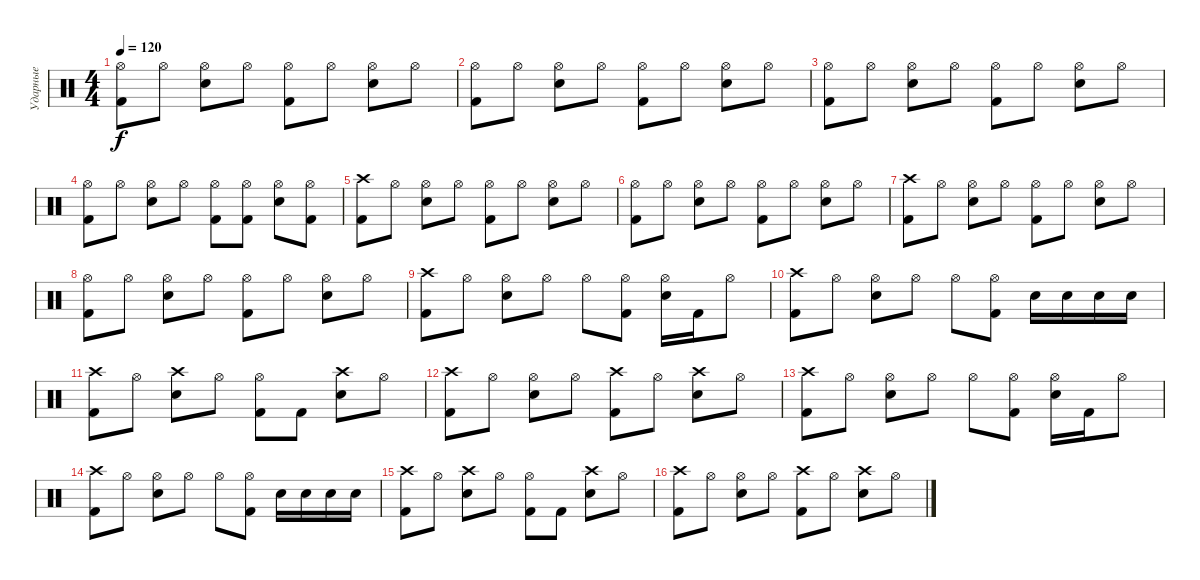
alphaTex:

\track ("Ударные" "Ударные") {instrument percussion}
\staff {score}
\articulation defaults
\ts (4 4)
\tempo 120
\clef neutral
\ks c
("Hi-Hat (open)" "Kick (hit) 2").8{dy f} "Hi-Hat (open)".8 ("Snare (hit) 2" "Hi-Hat (open)").8 "Hi-Hat (open)".8 ("Kick (hit) 2" "Hi-Hat (open)").8 "Hi-Hat (open)".8 ("Snare (hit) 2" "Hi-Hat (open)").8 "Hi-Hat (open)".8 |
("Hi-Hat (open)" "Kick (hit) 2").8 "Hi-Hat (open)".8 ("Snare (hit) 2" "Hi-Hat (open)").8 "Hi-Hat (open)".8 ("Kick (hit) 2" "Hi-Hat (open)").8 "Hi-Hat (open)".8 ("Snare (hit) 2" "Hi-Hat (open)").8 "Hi-Hat (open)".8 |
("Hi-Hat (open)" "Kick (hit) 2").8 "Hi-Hat (open)".8 ("Snare (hit) 2" "Hi-Hat (open)").8 "Hi-Hat (open)".8 ("Kick (hit) 2" "Hi-Hat (open)").8 "Hi-Hat (open)".8 ("Snare (hit) 2" "Hi-Hat (open)").8 "Hi-Hat (open)".8 |
("Hi-Hat (open)" "Kick (hit) 2").8 "Hi-Hat (open)".8 ("Snare (hit) 2" "Hi-Hat (open)").8 "Hi-Hat (open)".8 ("Kick (hit) 2" "Hi-Hat (open)").8 ("Kick (hit) 2" "Hi-Hat (open)").8 ("Snare (hit) 2" "Hi-Hat (open)").8 ("Kick (hit) 2" "Hi-Hat (open)").8 |
("Crash high (hit)" "Kick (hit) 2").8 "Hi-Hat (open)".8 ("Snare (hit) 2" "Hi-Hat (open)").8 "Hi-Hat (open)".8 ("Kick (hit) 2" "Hi-Hat (open)").8 "Hi-Hat (open)".8 ("Snare (hit) 2" "Hi-Hat (open)").8 "Hi-Hat (open)".8 |
("Hi-Hat (open)" "Kick (hit) 2").8 "Hi-Hat (open)".8 ("Snare (hit) 2" "Hi-Hat (open)").8 "Hi-Hat (open)".8 ("Kick (hit) 2" "Hi-Hat (open)").8 "Hi-Hat (open)".8 ("Snare (hit) 2" "Hi-Hat (open)").8 "Hi-Hat (open)".8 |
("Crash high (hit)" "Kick (hit) 2").8 "Hi-Hat (open)".8 ("Snare (hit) 2" "Hi-Hat (open)").8 "Hi-Hat (open)".8 ("Kick (hit) 2" "Hi-Hat (open)").8 "Hi-Hat (open)".8 ("Snare (hit) 2" "Hi-Hat (open)").8 "Hi-Hat (open)".8 |
("Hi-Hat (open)" "Kick (hit) 2").8 "Hi-Hat (open)".8 ("Snare (hit) 2" "Hi-Hat (open)").8 "Hi-Hat (open)".8 ("Kick (hit) 2" "Hi-Hat (open)").8 "Hi-Hat (open)".8 ("Snare (hit) 2" "Hi-Hat (open)").8 "Hi-Hat (open)".8 |
("Crash high (hit)" "Kick (hit) 2").8 "Hi-Hat (open)".8 ("Snare (hit) 2" "Hi-Hat (open)").8 "Hi-Hat (open)".8 "Hi-Hat (open)".8 ("Kick (hit) 2" "Hi-Hat (open)").8 ("Snare (hit) 2" "Hi-Hat (open)").16 "Kick (hit) 2".16 "Hi-Hat (open)".8 |
("Crash high (hit)" "Kick (hit) 2").8 "Hi-Hat (open)".8 ("Snare (hit) 2" "Hi-Hat (open)").8 "Hi-Hat (open)".8 "Hi-Hat (open)".8 ("Kick (hit) 2" "Hi-Hat (open)").8 "Electric Snare (hit)".16 "Electric Snare (hit)".16 "Electric Snare (hit)".16 "Electric Snare (hit)".16 |
("Crash high (hit)" "Kick (hit) 2").8 "Hi-Hat (open)".8 ("Snare (hit) 2" "Crash high (hit)").8 "Hi-Hat (open)".8 ("Kick (hit) 2" "Hi-Hat (open)").8 "Kick (hit) 2".8 ("Snare (hit) 2" "Crash high (hit)").8 "Hi-Hat (open)".8 |
("Crash high (hit)" "Kick (hit) 2").8 "Hi-Hat (open)".8 ("Snare (hit) 2" "Hi-Hat (open)").8 "Hi-Hat (open)".8 ("Kick (hit) 2" "Crash high (hit)").8 "Hi-Hat (open)".8 ("Snare (hit) 2" "Crash high (hit)").8 "Hi-Hat (open)".8 |
("Crash high (hit)" "Kick (hit) 2").8 "Hi-Hat (open)".8 ("Snare (hit) 2" "Hi-Hat (open)").8 "Hi-Hat (open)".8 "Hi-Hat (open)".8 ("Kick (hit) 2" "Hi-Hat (open)").8 ("Snare (hit) 2" "Hi-Hat (open)").16 "Kick (hit) 2".16 "Hi-Hat (open)".8 |
("Crash high (hit)" "Kick (hit) 2").8 "Hi-Hat (open)".8 ("Snare (hit) 2" "Hi-Hat (open)").8 "Hi-Hat (open)".8 "Hi-Hat (open)".8 ("Kick (hit) 2" "Hi-Hat (open)").8 "Electric Snare (hit)".16 "Electric Snare (hit)".16 "Electric Snare (hit)".16 "Electric Snare (hit)".16 |
("Crash high (hit)" "Kick (hit) 2").8 "Hi-Hat (open)".8 ("Snare (hit) 2" "Crash high (hit)").8 "Hi-Hat (open)".8 ("Kick (hit) 2" "Hi-Hat (open)").8 "Kick (hit) 2".8 ("Snare (hit) 2" "Crash high (hit)").8 "Hi-Hat (open)".8 |
("Crash high (hit)" "Kick (hit) 2").8 "Hi-Hat (open)".8 ("Snare (hit) 2" "Hi-Hat (open)").8 "Hi-Hat (open)".8 ("Kick (hit) 2" "Crash high (hit)").8 "Hi-Hat (open)".8 ("Snare (hit) 2" "Crash high (hit)").8 "Hi-Hat (open)".8
